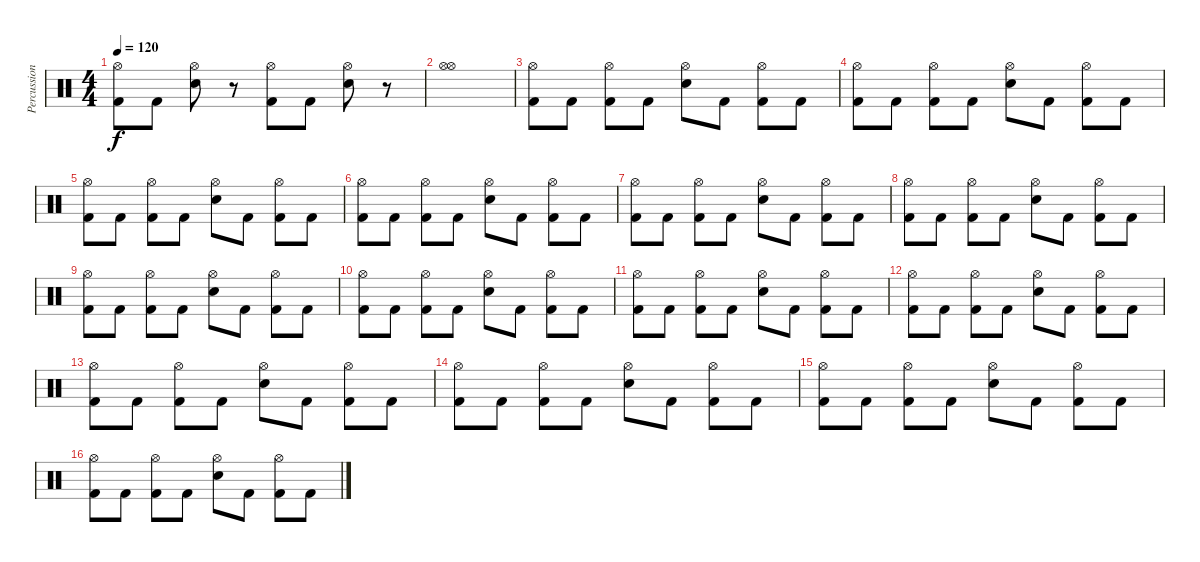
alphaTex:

\track ("Percussion" "Percussion") {solo instrument percussion}
\staff {score}
\articulation defaults
\ts (4 4)
\tempo 120
\clef neutral
\ks c
("Hi-Hat (open)" "Kick (hit) 2").8{dy f} "Kick (hit) 2".8 ("Hi-Hat (open)" "Snare (hit) 2").8 r.8 ("Hi-Hat (open)" "Kick (hit) 2").8 "Kick (hit) 2".8 ("Hi-Hat (open)" "Snare (hit) 2").8 r.8 |
("Hi-Hat (open)" "Hi-Hat (open)").1 |
("Hi-Hat (open)" "Kick (hit) 2").8 "Kick (hit) 2".8 ("Hi-Hat (open)" "Kick (hit) 2").8 "Kick (hit) 2".8 ("Hi-Hat (open)" "Snare (hit) 2").8 "Kick (hit) 2".8 ("Hi-Hat (open)" "Kick (hit) 2").8 "Kick (hit) 2".8 |
("Hi-Hat (open)" "Kick (hit) 2").8 "Kick (hit) 2".8 ("Hi-Hat (open)" "Kick (hit) 2").8 "Kick (hit) 2".8 ("Hi-Hat (open)" "Snare (hit) 2").8 "Kick (hit) 2".8 ("Hi-Hat (open)" "Kick (hit) 2").8 "Kick (hit) 2".8 |
("Hi-Hat (open)" "Kick (hit) 2").8 "Kick (hit) 2".8 ("Hi-Hat (open)" "Kick (hit) 2").8 "Kick (hit) 2".8 ("Hi-Hat (open)" "Snare (hit) 2").8 "Kick (hit) 2".8 ("Hi-Hat (open)" "Kick (hit) 2").8 "Kick (hit) 2".8 |
("Hi-Hat (open)" "Kick (hit) 2").8 "Kick (hit) 2".8 ("Hi-Hat (open)" "Kick (hit) 2").8 "Kick (hit) 2".8 ("Hi-Hat (open)" "Snare (hit) 2").8 "Kick (hit) 2".8 ("Hi-Hat (open)" "Kick (hit) 2").8 "Kick (hit) 2".8 |
("Hi-Hat (open)" "Kick (hit) 2").8 "Kick (hit) 2".8 ("Hi-Hat (open)" "Kick (hit) 2").8 "Kick (hit) 2".8 ("Hi-Hat (open)" "Snare (hit) 2").8 "Kick (hit) 2".8 ("Hi-Hat (open)" "Kick (hit) 2").8 "Kick (hit) 2".8 |
("Hi-Hat (open)" "Kick (hit) 2").8 "Kick (hit) 2".8 ("Hi-Hat (open)" "Kick (hit) 2").8 "Kick (hit) 2".8 ("Hi-Hat (open)" "Snare (hit) 2").8 "Kick (hit) 2".8 ("Hi-Hat (open)" "Kick (hit) 2").8 "Kick (hit) 2".8 |
("Hi-Hat (open)" "Kick (hit) 2").8 "Kick (hit) 2".8 ("Hi-Hat (open)" "Kick (hit) 2").8 "Kick (hit) 2".8 ("Hi-Hat (open)" "Snare (hit) 2").8 "Kick (hit) 2".8 ("Hi-Hat (open)" "Kick (hit) 2").8 "Kick (hit) 2".8 |
("Hi-Hat (open)" "Kick (hit) 2").8 "Kick (hit) 2".8 ("Hi-Hat (open)" "Kick (hit) 2").8 "Kick (hit) 2".8 ("Hi-Hat (open)" "Snare (hit) 2").8 "Kick (hit) 2".8 ("Hi-Hat (open)" "Kick (hit) 2").8 "Kick (hit) 2".8 |
("Hi-Hat (open)" "Kick (hit) 2").8 "Kick (hit) 2".8 ("Hi-Hat (open)" "Kick (hit) 2").8 "Kick (hit) 2".8 ("Hi-Hat (open)" "Snare (hit) 2").8 "Kick (hit) 2".8 ("Hi-Hat (open)" "Kick (hit) 2").8 "Kick (hit) 2".8 |
("Hi-Hat (open)" "Kick (hit) 2").8 "Kick (hit) 2".8 ("Hi-Hat (open)" "Kick (hit) 2").8 "Kick (hit) 2".8 ("Hi-Hat (open)" "Snare (hit) 2").8 "Kick (hit) 2".8 ("Hi-Hat (open)" "Kick (hit) 2").8 "Kick (hit) 2".8 |
("Hi-Hat (open)" "Kick (hit) 2").8 "Kick (hit) 2".8 ("Hi-Hat (open)" "Kick (hit) 2").8 "Kick (hit) 2".8 ("Hi-Hat (open)" "Snare (hit) 2").8 "Kick (hit) 2".8 ("Hi-Hat (open)" "Kick (hit) 2").8 "Kick (hit) 2".8 |
("Hi-Hat (open)" "Kick (hit) 2").8 "Kick (hit) 2".8 ("Hi-Hat (open)" "Kick (hit) 2").8 "Kick (hit) 2".8 ("Hi-Hat (open)" "Snare (hit) 2").8 "Kick (hit) 2".8 ("Hi-Hat (open)" "Kick (hit) 2").8 "Kick (hit) 2".8 |
("Hi-Hat (open)" "Kick (hit) 2").8 "Kick (hit) 2".8 ("Hi-Hat (open)" "Kick (hit) 2").8 "Kick (hit) 2".8 ("Hi-Hat (open)" "Snare (hit) 2").8 "Kick (hit) 2".8 ("Hi-Hat (open)" "Kick (hit) 2").8 "Kick (hit) 2".8 |
("Hi-Hat (open)" "Kick (hit) 2").8 "Kick (hit) 2".8 ("Hi-Hat (open)" "Kick (hit) 2").8 "Kick (hit) 2".8 ("Hi-Hat (open)" "Snare (hit) 2").8 "Kick (hit) 2".8 ("Hi-Hat (open)" "Kick (hit) 2").8 "Kick (hit) 2".8
